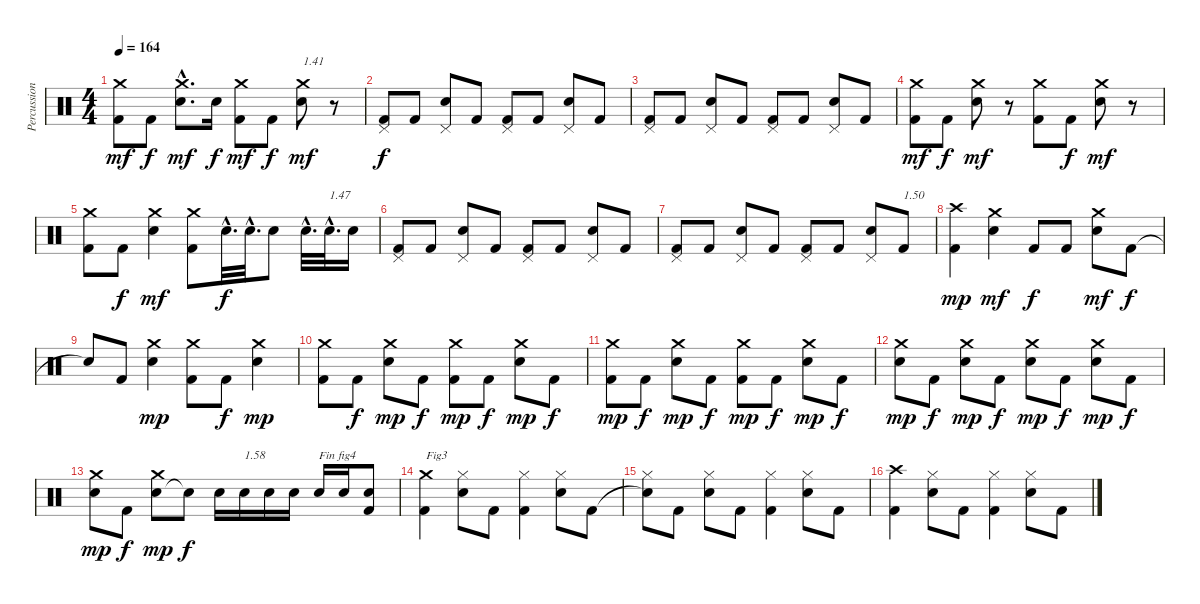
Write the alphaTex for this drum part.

\track ("Percussions" "Percussion") {instrument percussion}
\staff {score}
\articulation defaults
\ts (4 4)
\tempo 164
\clef neutral
\ks c
("Kick (hit) 2" "Crash medium (hit)").8{dy mf} "Kick (hit) 2".8{dy f} ("Electric Snare (hit)"{hac} "Crash medium (hit)"{hac}).8{d dy mf} "Electric Snare (hit)".16{dy f} ("Kick (hit) 2" "Crash medium (hit)").8{dy mf} "Kick (hit) 2".8{dy f} ("Electric Snare (hit)" "Crash medium (hit)").8{txt "1.41" dy mf} r.8 |
("Kick (hit) 2" "Pedal Hi-Hat (hit)").8{dy f} "Kick (hit) 2".8 ("Electric Snare (hit)" "Pedal Hi-Hat (hit)").8 "Kick (hit) 2".8 ("Kick (hit) 2" "Pedal Hi-Hat (hit)").8 "Kick (hit) 2".8 ("Electric Snare (hit)" "Pedal Hi-Hat (hit)").8 "Kick (hit) 2".8 |
("Kick (hit) 2" "Pedal Hi-Hat (hit)").8 "Kick (hit) 2".8 ("Electric Snare (hit)" "Pedal Hi-Hat (hit)").8 "Kick (hit) 2".8 ("Kick (hit) 2" "Pedal Hi-Hat (hit)").8 "Kick (hit) 2".8 ("Electric Snare (hit)" "Pedal Hi-Hat (hit)").8 "Kick (hit) 2".8 |
("Kick (hit) 2" "Crash medium (hit)").8{dy mf} "Kick (hit) 2".8{dy f} ("Electric Snare (hit)" "Crash medium (hit)").8{dy mf} r.8 ("Kick (hit) 2" "Crash medium (hit)").8 "Kick (hit) 2".8{dy f} ("Electric Snare (hit)" "Crash medium (hit)").8{dy mf} r.8 |
("Kick (hit) 2" "Crash medium (hit)").8 "Kick (hit) 2".8{dy f} ("Electric Snare (hit)" "Crash medium (hit)").4{dy mf} ("Kick (hit) 2" "Crash medium (hit)").8 "Electric Snare (hit)"{hac}.32{d dy f} "Electric Snare (hit)"{hac}.32{d} "Electric Snare (hit)".8 "Electric Snare (hit)"{hac}.32{d} "Electric Snare (hit)"{hac}.32{d txt "1.47"} "Electric Snare (hit)".16 |
("Kick (hit) 2" "Pedal Hi-Hat (hit)").8 "Kick (hit) 2".8 ("Electric Snare (hit)" "Pedal Hi-Hat (hit)").8 "Kick (hit) 2".8 ("Kick (hit) 2" "Pedal Hi-Hat (hit)").8 "Kick (hit) 2".8 ("Electric Snare (hit)" "Pedal Hi-Hat (hit)").8 "Kick (hit) 2".8 |
("Kick (hit) 2" "Pedal Hi-Hat (hit)").8 "Kick (hit) 2".8 ("Electric Snare (hit)" "Pedal Hi-Hat (hit)").8 "Kick (hit) 2".8 ("Kick (hit) 2" "Pedal Hi-Hat (hit)").8 "Kick (hit) 2".8 ("Electric Snare (hit)" "Pedal Hi-Hat (hit)").8 "Kick (hit) 2".8{txt "1.50"} |
("Kick (hit) 2" "Crash high (hit)").4{dy mp} ("Electric Snare (hit)" "Crash medium (hit)").4{dy mf} "Kick (hit) 2".8{dy f} "Kick (hit) 2".8 ("Electric Snare (hit)" "Crash medium (hit)").8{dy mf} "Kick (hit) 2".8{dy f} |
"Snare (hit)"{t}.8 "Kick (hit) 2".8 ("Electric Snare (hit)" "Crash medium (hit)").4{dy mp} ("Kick (hit) 2" "Crash medium (hit)").8 "Kick (hit) 2".8{dy f} ("Electric Snare (hit)" "Crash medium (hit)").4{dy mp} |
("Kick (hit) 2" "Crash medium (hit)").8 "Kick (hit) 2".8{dy f} ("Electric Snare (hit)" "Crash medium (hit)").8{dy mp} "Kick (hit) 2".8{dy f} ("Kick (hit) 2" "Crash medium (hit)").8{dy mp} "Kick (hit) 2".8{dy f} ("Electric Snare (hit)" "Crash medium (hit)").8{dy mp} "Kick (hit) 2".8{dy f} |
("Kick (hit) 2" "Crash medium (hit)").8{dy mp} "Kick (hit) 2".8{dy f} ("Electric Snare (hit)" "Crash medium (hit)").8{dy mp} "Kick (hit) 2".8{dy f} ("Kick (hit) 2" "Crash medium (hit)").8{dy mp} "Kick (hit) 2".8{dy f} ("Electric Snare (hit)" "Crash medium (hit)").8{dy mp} "Kick (hit) 2".8{dy f} |
("Electric Snare (hit)" "Crash medium (hit)").8{dy mp} "Kick (hit) 2".8{dy f} ("Electric Snare (hit)" "Crash medium (hit)").8{dy mp} "Kick (hit) 2".8{dy f} ("Electric Snare (hit)" "Crash medium (hit)").8{dy mp} "Kick (hit) 2".8{dy f} ("Electric Snare (hit)" "Crash medium (hit)").8{dy mp} "Kick (hit) 2".8{dy f} |
("Electric Snare (hit)" "Crash medium (hit)").8{dy mp} "Kick (hit) 2".8{dy f} ("Electric Snare (hit)" "Crash medium (hit)").8{dy mp} "Electric Snare (hit)"{t}.8{dy f} "Electric Snare (hit)".16 "Electric Snare (hit)".16{txt "1.58"} "Electric Snare (hit)".16 "Electric Snare (hit)".16 "Electric Snare (hit)".16{txt "Fin fig4"} "Electric Snare (hit)".16 ("Kick (hit) 2" "Electric Snare (hit)").8 |
("Kick (hit) 2" "Crash medium (hit)").4{txt "Fig3"} ("Electric Snare (hit)" "Hi-Hat (closed)").8 "Kick (hit) 2".8 ("Kick (hit) 2" "Hi-Hat (closed)").4 ("Electric Snare (hit)" "Hi-Hat (closed)").8 "Kick (hit) 2".8 |
("Snare (hit)"{t} "Hi-Hat (closed)").8 "Kick (hit) 2".8 ("Electric Snare (hit)" "Hi-Hat (closed)").8 "Kick (hit) 2".8 ("Kick (hit) 2" "Hi-Hat (closed)").4 ("Electric Snare (hit)" "Hi-Hat (closed)").8 "Kick (hit) 2".8 |
("Kick (hit) 2" "Crash high (hit)").4 ("Electric Snare (hit)" "Hi-Hat (closed)").8 "Kick (hit) 2".8 ("Kick (hit) 2" "Hi-Hat (closed)").4 ("Electric Snare (hit)" "Hi-Hat (closed)").8 "Kick (hit) 2".8
